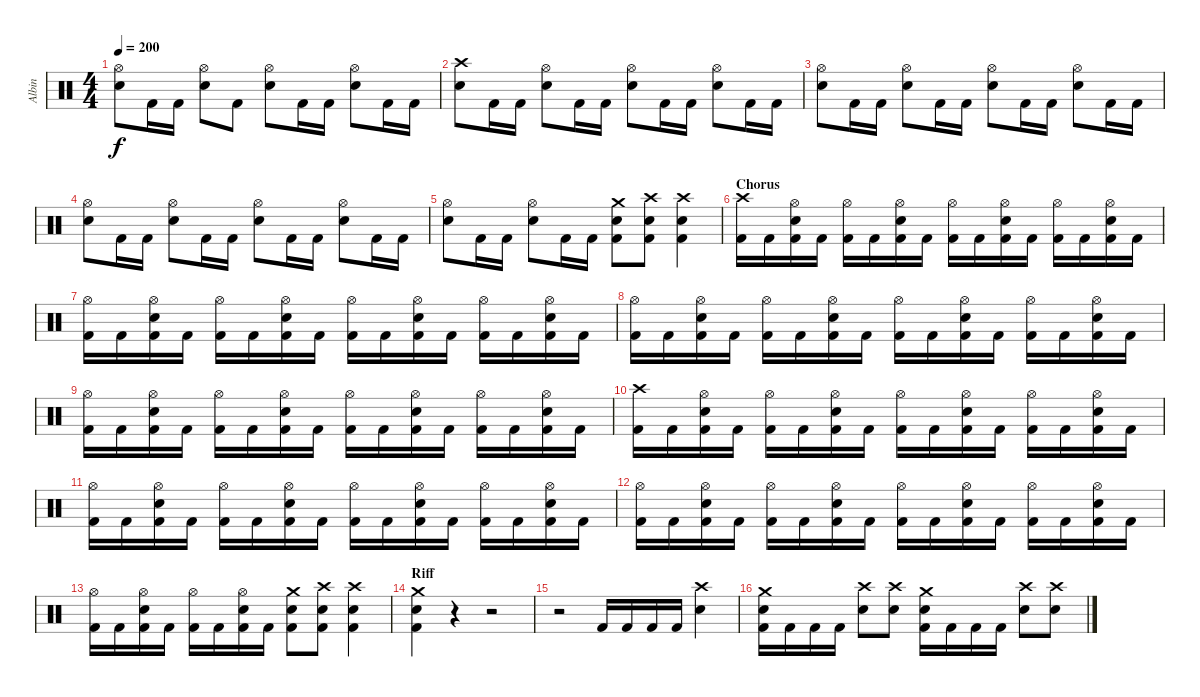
\track ("Albin" "Albin") {instrument percussion}
\staff {score}
\articulation defaults
\ts (4 4)
\tempo 200
\clef neutral
\ks c
("Hi-Hat (open)" "Snare (hit) 2").8{dy f} "Kick (hit) 2".16 "Kick (hit) 2".16 ("Hi-Hat (open)" "Snare (hit) 2").8 "Kick (hit) 2".8 ("Hi-Hat (open)" "Snare (hit) 2").8 "Kick (hit) 2".16 "Kick (hit) 2".16 ("Hi-Hat (open)" "Snare (hit) 2").8 "Kick (hit) 2".16 "Kick (hit) 2".16 |
("Crash high (hit)" "Snare (hit) 2").8 "Kick (hit) 2".16 "Kick (hit) 2".16 ("Hi-Hat (open)" "Snare (hit) 2").8 "Kick (hit) 2".16 "Kick (hit) 2".16 ("Hi-Hat (open)" "Snare (hit) 2").8 "Kick (hit) 2".16 "Kick (hit) 2".16 ("Hi-Hat (open)" "Snare (hit) 2").8 "Kick (hit) 2".16 "Kick (hit) 2".16 |
("Hi-Hat (open)" "Snare (hit) 2").8 "Kick (hit) 2".16 "Kick (hit) 2".16 ("Hi-Hat (open)" "Snare (hit) 2").8 "Kick (hit) 2".16 "Kick (hit) 2".16 ("Hi-Hat (open)" "Snare (hit) 2").8 "Kick (hit) 2".16 "Kick (hit) 2".16 ("Hi-Hat (open)" "Snare (hit) 2").8 "Kick (hit) 2".16 "Kick (hit) 2".16 |
("Hi-Hat (open)" "Snare (hit) 2").8 "Kick (hit) 2".16 "Kick (hit) 2".16 ("Hi-Hat (open)" "Snare (hit) 2").8 "Kick (hit) 2".16 "Kick (hit) 2".16 ("Hi-Hat (open)" "Snare (hit) 2").8 "Kick (hit) 2".16 "Kick (hit) 2".16 ("Hi-Hat (open)" "Snare (hit) 2").8 "Kick (hit) 2".16 "Kick (hit) 2".16 |
("Hi-Hat (open)" "Snare (hit) 2").8 "Kick (hit) 2".16 "Kick (hit) 2".16 ("Hi-Hat (open)" "Snare (hit) 2").8 "Kick (hit) 2".16 "Kick (hit) 2".16 ("Crash medium (hit)" "Snare (hit) 2" "Kick (hit) 2").8 ("Crash high (hit)" "Snare (hit) 2" "Kick (hit) 2").8 ("Crash high (hit)" "Snare (hit) 2" "Kick (hit) 2").4 |
\section ("" "Chorus")
("Crash high (hit)" "Kick (hit) 2").16 "Kick (hit) 2".16 ("Hi-Hat (open)" "Snare (hit) 2" "Kick (hit) 2").16 "Kick (hit) 2".16 ("Hi-Hat (open)" "Kick (hit) 2").16 "Kick (hit) 2".16 ("Hi-Hat (open)" "Snare (hit) 2" "Kick (hit) 2").16 "Kick (hit) 2".16 ("Hi-Hat (open)" "Kick (hit) 2").16 "Kick (hit) 2".16 ("Hi-Hat (open)" "Snare (hit) 2" "Kick (hit) 2").16 "Kick (hit) 2".16 ("Hi-Hat (open)" "Kick (hit) 2").16 "Kick (hit) 2".16 ("Hi-Hat (open)" "Snare (hit) 2" "Kick (hit) 2").16 "Kick (hit) 2".16 |
("Hi-Hat (open)" "Kick (hit) 2").16 "Kick (hit) 2".16 ("Hi-Hat (open)" "Snare (hit) 2" "Kick (hit) 2").16 "Kick (hit) 2".16 ("Hi-Hat (open)" "Kick (hit) 2").16 "Kick (hit) 2".16 ("Hi-Hat (open)" "Snare (hit) 2" "Kick (hit) 2").16 "Kick (hit) 2".16 ("Hi-Hat (open)" "Kick (hit) 2").16 "Kick (hit) 2".16 ("Hi-Hat (open)" "Snare (hit) 2" "Kick (hit) 2").16 "Kick (hit) 2".16 ("Hi-Hat (open)" "Kick (hit) 2").16 "Kick (hit) 2".16 ("Hi-Hat (open)" "Snare (hit) 2" "Kick (hit) 2").16 "Kick (hit) 2".16 |
("Hi-Hat (open)" "Kick (hit) 2").16 "Kick (hit) 2".16 ("Hi-Hat (open)" "Snare (hit) 2" "Kick (hit) 2").16 "Kick (hit) 2".16 ("Hi-Hat (open)" "Kick (hit) 2").16 "Kick (hit) 2".16 ("Hi-Hat (open)" "Snare (hit) 2" "Kick (hit) 2").16 "Kick (hit) 2".16 ("Hi-Hat (open)" "Kick (hit) 2").16 "Kick (hit) 2".16 ("Hi-Hat (open)" "Snare (hit) 2" "Kick (hit) 2").16 "Kick (hit) 2".16 ("Hi-Hat (open)" "Kick (hit) 2").16 "Kick (hit) 2".16 ("Hi-Hat (open)" "Snare (hit) 2" "Kick (hit) 2").16 "Kick (hit) 2".16 |
("Hi-Hat (open)" "Kick (hit) 2").16 "Kick (hit) 2".16 ("Hi-Hat (open)" "Snare (hit) 2" "Kick (hit) 2").16 "Kick (hit) 2".16 ("Hi-Hat (open)" "Kick (hit) 2").16 "Kick (hit) 2".16 ("Hi-Hat (open)" "Snare (hit) 2" "Kick (hit) 2").16 "Kick (hit) 2".16 ("Hi-Hat (open)" "Kick (hit) 2").16 "Kick (hit) 2".16 ("Hi-Hat (open)" "Snare (hit) 2" "Kick (hit) 2").16 "Kick (hit) 2".16 ("Hi-Hat (open)" "Kick (hit) 2").16 "Kick (hit) 2".16 ("Hi-Hat (open)" "Snare (hit) 2" "Kick (hit) 2").16 "Kick (hit) 2".16 |
("Crash high (hit)" "Kick (hit) 2").16 "Kick (hit) 2".16 ("Hi-Hat (open)" "Snare (hit) 2" "Kick (hit) 2").16 "Kick (hit) 2".16 ("Hi-Hat (open)" "Kick (hit) 2").16 "Kick (hit) 2".16 ("Hi-Hat (open)" "Snare (hit) 2" "Kick (hit) 2").16 "Kick (hit) 2".16 ("Hi-Hat (open)" "Kick (hit) 2").16 "Kick (hit) 2".16 ("Hi-Hat (open)" "Snare (hit) 2" "Kick (hit) 2").16 "Kick (hit) 2".16 ("Hi-Hat (open)" "Kick (hit) 2").16 "Kick (hit) 2".16 ("Hi-Hat (open)" "Snare (hit) 2" "Kick (hit) 2").16 "Kick (hit) 2".16 |
("Hi-Hat (open)" "Kick (hit) 2").16 "Kick (hit) 2".16 ("Hi-Hat (open)" "Snare (hit) 2" "Kick (hit) 2").16 "Kick (hit) 2".16 ("Hi-Hat (open)" "Kick (hit) 2").16 "Kick (hit) 2".16 ("Hi-Hat (open)" "Snare (hit) 2" "Kick (hit) 2").16 "Kick (hit) 2".16 ("Hi-Hat (open)" "Kick (hit) 2").16 "Kick (hit) 2".16 ("Hi-Hat (open)" "Snare (hit) 2" "Kick (hit) 2").16 "Kick (hit) 2".16 ("Hi-Hat (open)" "Kick (hit) 2").16 "Kick (hit) 2".16 ("Hi-Hat (open)" "Snare (hit) 2" "Kick (hit) 2").16 "Kick (hit) 2".16 |
("Hi-Hat (open)" "Kick (hit) 2").16 "Kick (hit) 2".16 ("Hi-Hat (open)" "Snare (hit) 2" "Kick (hit) 2").16 "Kick (hit) 2".16 ("Hi-Hat (open)" "Kick (hit) 2").16 "Kick (hit) 2".16 ("Hi-Hat (open)" "Snare (hit) 2" "Kick (hit) 2").16 "Kick (hit) 2".16 ("Hi-Hat (open)" "Kick (hit) 2").16 "Kick (hit) 2".16 ("Hi-Hat (open)" "Snare (hit) 2" "Kick (hit) 2").16 "Kick (hit) 2".16 ("Hi-Hat (open)" "Kick (hit) 2").16 "Kick (hit) 2".16 ("Hi-Hat (open)" "Snare (hit) 2" "Kick (hit) 2").16 "Kick (hit) 2".16 |
("Hi-Hat (open)" "Kick (hit) 2").16 "Kick (hit) 2".16 ("Hi-Hat (open)" "Snare (hit) 2" "Kick (hit) 2").16 "Kick (hit) 2".16 ("Hi-Hat (open)" "Kick (hit) 2").16 "Kick (hit) 2".16 ("Hi-Hat (open)" "Snare (hit) 2" "Kick (hit) 2").16 "Kick (hit) 2".16 ("Crash medium (hit)" "Snare (hit) 2" "Kick (hit) 2").8 ("Crash high (hit)" "Snare (hit) 2" "Kick (hit) 2").8 ("Crash high (hit)" "Snare (hit) 2" "Kick (hit) 2").4 |
\section ("" "Riff")
("Crash medium (hit)" "Snare (hit) 2" "Kick (hit) 2").4 r.4 r.2 |
r.2 "Kick (hit) 2".16 "Kick (hit) 2".16 "Kick (hit) 2".16 "Kick (hit) 2".16 ("Crash high (hit)" "Snare (hit) 2").4 |
("Crash medium (hit)" "Snare (hit) 2" "Kick (hit) 2").16 "Kick (hit) 2".16 "Kick (hit) 2".16 "Kick (hit) 2".16 ("Crash high (hit)" "Snare (hit) 2").8 ("Crash high (hit)" "Snare (hit) 2").8 ("Crash medium (hit)" "Snare (hit) 2" "Kick (hit) 2").16 "Kick (hit) 2".16 "Kick (hit) 2".16 "Kick (hit) 2".16 ("Crash high (hit)" "Snare (hit) 2").8 ("Crash high (hit)" "Snare (hit) 2").8
